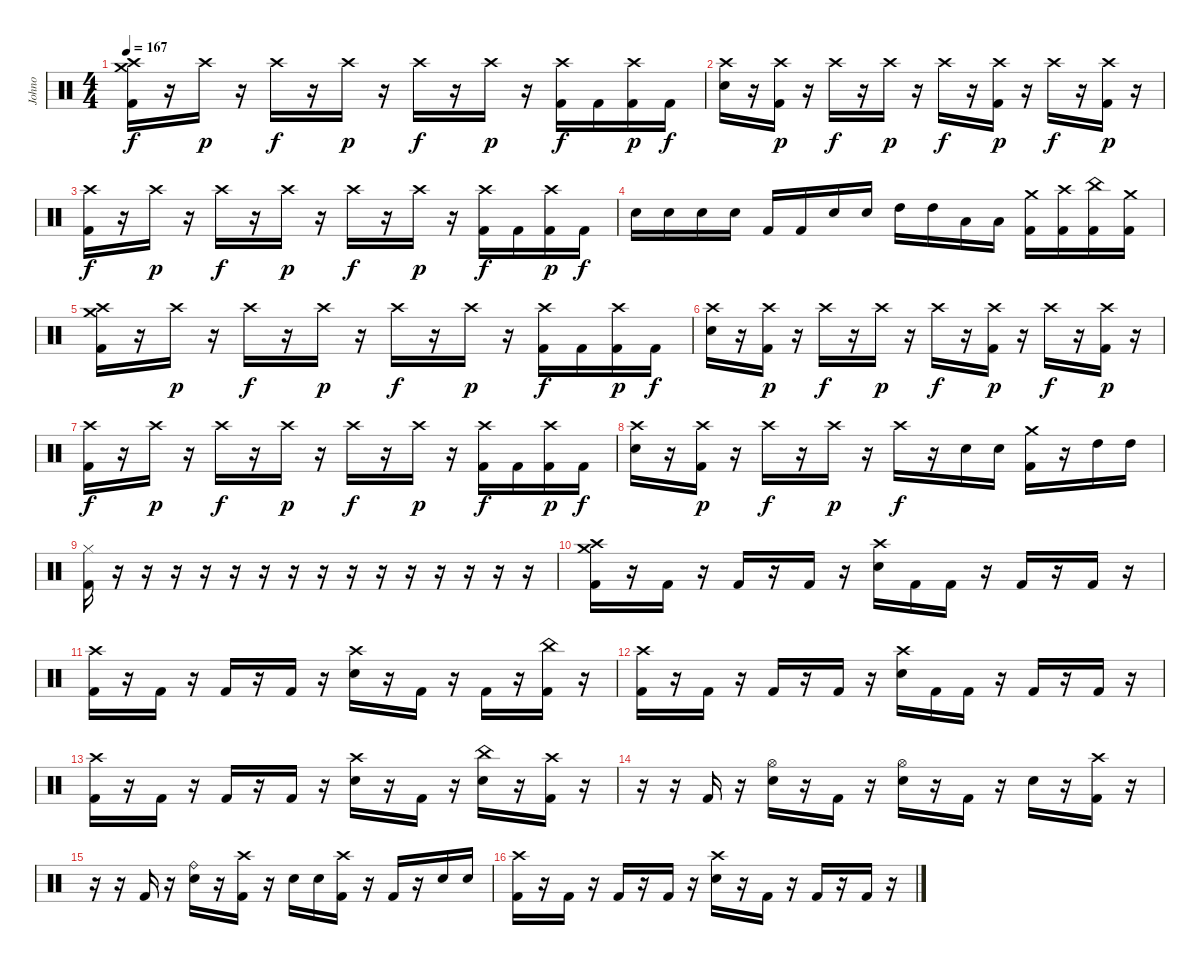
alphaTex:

\track ("Johno" "Johno") {instrument percussion}
\staff {score}
\articulation defaults
\ts (4 4)
\tempo 167
\clef neutral
\ks c
("Crash medium (hit)" "Crash high (hit)" "Kick (hit) 2").16{dy f} r.16 "Crash high (hit)".16{dy p} r.16 "Crash high (hit)".16{dy f} r.16 "Crash high (hit)".16{dy p} r.16 "Crash high (hit)".16{dy f} r.16 "Crash high (hit)".16{dy p} r.16 ("Crash high (hit)" "Kick (hit) 2").16{dy f} "Kick (hit) 2".16 ("Crash high (hit)" "Kick (hit) 2").16{dy p} "Kick (hit) 2".16{dy f} |
("Crash high (hit)" "Electric Snare (hit)").16 r.16 ("Crash high (hit)" "Kick (hit) 2").16{dy p} r.16 "Crash high (hit)".16{dy f} r.16 "Crash high (hit)".16{dy p} r.16 "Crash high (hit)".16{dy f} r.16 ("Crash high (hit)" "Kick (hit) 2").16{dy p} r.16 "Crash high (hit)".16{dy f} r.16 ("Crash high (hit)" "Kick (hit) 2").16{dy p} r.16 |
("Crash high (hit)" "Kick (hit) 2").16{dy f} r.16 "Crash high (hit)".16{dy p} r.16 "Crash high (hit)".16{dy f} r.16 "Crash high (hit)".16{dy p} r.16 "Crash high (hit)".16{dy f} r.16 "Crash high (hit)".16{dy p} r.16 ("Crash high (hit)" "Kick (hit) 2").16{dy f} "Kick (hit) 2".16 ("Crash high (hit)" "Kick (hit) 2").16{dy p} "Kick (hit) 2".16{dy f} |
"Electric Snare (hit)".16 "Electric Snare (hit)".16 "Electric Snare (hit)".16 "Electric Snare (hit)".16 "Kick (hit) 2".16 "Kick (hit) 2".16 "Electric Snare (hit)".16 "Electric Snare (hit)".16 "High Tom (hit)".16 "High Tom (hit)".16 "Low Floor Tom (hit)".16 "Low Floor Tom (hit)".16 ("Crash medium (hit)" "Kick (hit) 2").16 ("Crash high (hit)" "Kick (hit) 2").16 ("China (hit)" "Kick (hit) 2").16 ("Crash medium (hit)" "Kick (hit) 2").16 |
("Crash medium (hit)" "Crash high (hit)" "Kick (hit) 2").16 r.16 "Crash high (hit)".16{dy p} r.16 "Crash high (hit)".16{dy f} r.16 "Crash high (hit)".16{dy p} r.16 "Crash high (hit)".16{dy f} r.16 "Crash high (hit)".16{dy p} r.16 ("Crash high (hit)" "Kick (hit) 2").16{dy f} "Kick (hit) 2".16 ("Crash high (hit)" "Kick (hit) 2").16{dy p} "Kick (hit) 2".16{dy f} |
("Crash high (hit)" "Electric Snare (hit)").16 r.16 ("Crash high (hit)" "Kick (hit) 2").16{dy p} r.16 "Crash high (hit)".16{dy f} r.16 "Crash high (hit)".16{dy p} r.16 "Crash high (hit)".16{dy f} r.16 ("Crash high (hit)" "Kick (hit) 2").16{dy p} r.16 "Crash high (hit)".16{dy f} r.16 ("Crash high (hit)" "Kick (hit) 2").16{dy p} r.16 |
("Crash high (hit)" "Kick (hit) 2").16{dy f} r.16 "Crash high (hit)".16{dy p} r.16 "Crash high (hit)".16{dy f} r.16 "Crash high (hit)".16{dy p} r.16 "Crash high (hit)".16{dy f} r.16 "Crash high (hit)".16{dy p} r.16 ("Crash high (hit)" "Kick (hit) 2").16{dy f} "Kick (hit) 2".16 ("Crash high (hit)" "Kick (hit) 2").16{dy p} "Kick (hit) 2".16{dy f} |
("Crash high (hit)" "Electric Snare (hit)").16 r.16 ("Crash high (hit)" "Kick (hit) 2").16{dy p} r.16 "Crash high (hit)".16{dy f} r.16 "Crash high (hit)".16{dy p} r.16 "Crash high (hit)".16{dy f} r.16 "Electric Snare (hit)".16 "Electric Snare (hit)".16 ("Crash medium (hit)" "Kick (hit) 2").16 r.16 "High Tom (hit)".16 "High Tom (hit)".16 |
("Hi-Hat (closed)" "Kick (hit) 2").16 r.16 r.16 r.16 r.16 r.16 r.16 r.16 r.16 r.16 r.16 r.16 r.16 r.16 r.16 r.16 |
("Crash high (hit)" "Crash medium (hit)" "Kick (hit) 2").16 r.16 "Kick (hit) 2".16 r.16 "Kick (hit) 2".16 r.16 "Kick (hit) 2".16 r.16 ("Crash high (hit)" "Electric Snare (hit)").16 "Kick (hit) 2".16 "Kick (hit) 2".16 r.16 "Kick (hit) 2".16 r.16 "Kick (hit) 2".16 r.16 |
("Crash high (hit)" "Kick (hit) 2").16 r.16 "Kick (hit) 2".16 r.16 "Kick (hit) 2".16 r.16 "Kick (hit) 2".16 r.16 ("Crash high (hit)" "Electric Snare (hit)").16 r.16 "Kick (hit) 2".16 r.16 "Kick (hit) 2".16 r.16 ("China (hit)" "Kick (hit) 2").16 r.16 |
("Crash high (hit)" "Kick (hit) 2").16 r.16 "Kick (hit) 2".16 r.16 "Kick (hit) 2".16 r.16 "Kick (hit) 2".16 r.16 ("Crash high (hit)" "Electric Snare (hit)").16 "Kick (hit) 2".16 "Kick (hit) 2".16 r.16 "Kick (hit) 2".16 r.16 "Kick (hit) 2".16 r.16 |
("Crash high (hit)" "Kick (hit) 2").16 r.16 "Kick (hit) 2".16 r.16 "Kick (hit) 2".16 r.16 "Kick (hit) 2".16 r.16 ("Crash high (hit)" "Electric Snare (hit)").16 r.16 "Kick (hit) 2".16 r.16 ("China (hit)" "Electric Snare (hit)").16 r.16 ("Crash high (hit)" "Kick (hit) 2").16 r.16 |
r.16 r.16 "Kick (hit) 2".16 r.16 ("Hi-Hat (open)" "Electric Snare (hit)").16 r.16 "Kick (hit) 2".16 r.16 ("Hi-Hat (open)" "Electric Snare (hit)").16 r.16 "Kick (hit) 2".16 r.16 "Electric Snare (hit)".16 r.16 ("Crash high (hit)" "Kick (hit) 2").16 r.16 |
r.16 r.16 "Kick (hit) 2".16 r.16 ("Ride (bell)" "Electric Snare (hit)").16 r.16 ("Crash high (hit)" "Kick (hit) 2").16 r.16 "Electric Snare (hit)".16 "Electric Snare (hit)".16 ("Crash high (hit)" "Kick (hit) 2").16 r.16 "Kick (hit) 2".16 r.16 "Electric Snare (hit)".16 "Electric Snare (hit)".16 |
("Crash high (hit)" "Kick (hit) 2").16 r.16 "Kick (hit) 2".16 r.16 "Kick (hit) 2".16 r.16 "Kick (hit) 2".16 r.16 ("Crash high (hit)" "Electric Snare (hit)").16 r.16 "Kick (hit) 2".16 r.16 "Kick (hit) 2".16 r.16 "Kick (hit) 2".16 r.16
